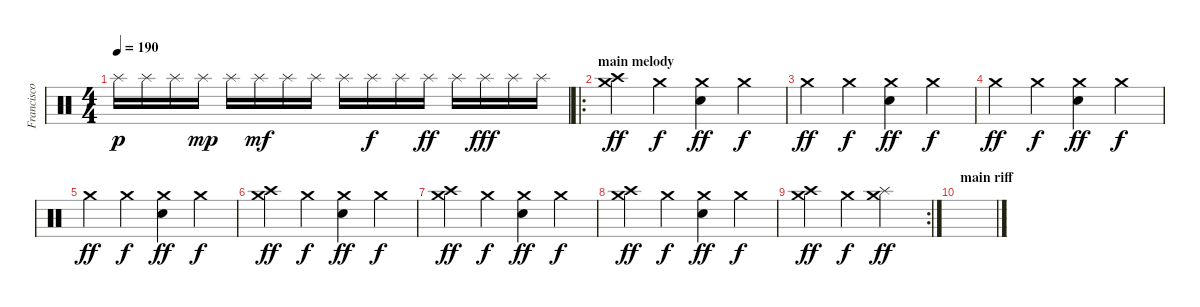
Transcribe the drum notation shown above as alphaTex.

\track ("Francisco Izquierdo (Percusión)" "Francisco ") {instrument percussion}
\staff {score}
\articulation defaults
\ts (4 4)
\tempo 190
\clef neutral
\ks c "Splash (hit)".16{dy p} "Splash (hit)".16 "Splash (hit)".16 "Splash (hit)".16{dy mp} "Splash (hit)".16 "Splash (hit)".16{dy mf} "Splash (hit)".16 "Splash (hit)".16 "Splash (hit)".16 "Splash (hit)".16{dy f} "Splash (hit)".16 "Splash (hit)".16{dy ff} "Splash (hit)".16 "Splash (hit)".16{dy fff} "Splash (hit)".16 "Splash (hit)".16
|
\ro
\section ("" "main melody")
("Crash medium (hit)" "Crash high (hit)").4{dy ff} "Crash medium (hit)".4{dy f} ("Crash medium (hit)" "Electric Snare (hit)").4{dy ff} "Crash medium (hit)".4{dy f} |
"Crash medium (hit)".4{dy ff} "Crash medium (hit)".4{dy f} ("Crash medium (hit)" "Electric Snare (hit)").4{dy ff} "Crash medium (hit)".4{dy f} |
"Crash medium (hit)".4{dy ff} "Crash medium (hit)".4{dy f} ("Crash medium (hit)" "Electric Snare (hit)").4{dy ff} "Crash medium (hit)".4{dy f} |
"Crash medium (hit)".4{dy ff} "Crash medium (hit)".4{dy f} ("Crash medium (hit)" "Electric Snare (hit)").4{dy ff} "Crash medium (hit)".4{dy f} |
("Crash medium (hit)" "Crash high (hit)").4{dy ff} "Crash medium (hit)".4{dy f} ("Crash medium (hit)" "Electric Snare (hit)").4{dy ff} "Crash medium (hit)".4{dy f} |
("Crash medium (hit)" "Crash high (hit)").4{dy ff} "Crash medium (hit)".4{dy f} ("Crash medium (hit)" "Electric Snare (hit)").4{dy ff} "Crash medium (hit)".4{dy f} |
("Crash medium (hit)" "Crash high (hit)").4{dy ff} "Crash medium (hit)".4{dy f} ("Crash medium (hit)" "Electric Snare (hit)").4{dy ff} "Crash medium (hit)".4{dy f} |
\rc 2
("Crash medium (hit)" "Crash high (hit)").4{dy ff} "Crash medium (hit)".4{dy f} ("Crash medium (hit)" "Splash (hit)").2{dy ff} |
\section ("" "main riff")
